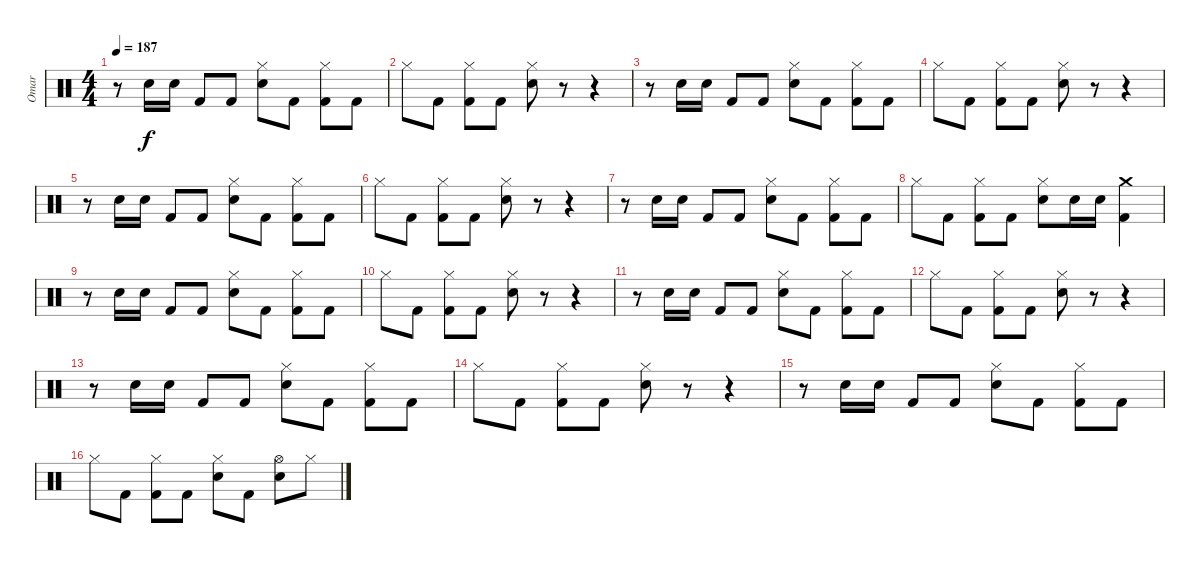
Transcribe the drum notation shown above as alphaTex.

\track ("Omar" "Omar") {instrument percussion}
\staff {score}
\articulation defaults
\ts (4 4)
\tempo 187
\clef neutral
\ks c
r.8{dy f} "Snare (hit) 2".16 "Snare (hit) 2".16 "Kick (hit) 2".8 "Kick (hit) 2".8 ("Hi-Hat (closed)" "Snare (hit) 2").8 "Kick (hit) 2".8 ("Hi-Hat (closed)" "Kick (hit) 2").8 "Kick (hit) 2".8 |
"Hi-Hat (closed)".8 "Kick (hit) 2".8 ("Hi-Hat (closed)" "Kick (hit) 2").8 "Kick (hit) 2".8 ("Hi-Hat (closed)" "Snare (hit) 2").8 r.8 r.4 |
r.8 "Snare (hit) 2".16 "Snare (hit) 2".16 "Kick (hit) 2".8 "Kick (hit) 2".8 ("Hi-Hat (closed)" "Snare (hit) 2").8 "Kick (hit) 2".8 ("Hi-Hat (closed)" "Kick (hit) 2").8 "Kick (hit) 2".8 |
"Hi-Hat (closed)".8 "Kick (hit) 2".8 ("Hi-Hat (closed)" "Kick (hit) 2").8 "Kick (hit) 2".8 ("Hi-Hat (closed)" "Snare (hit) 2").8 r.8 r.4 |
r.8 "Snare (hit) 2".16 "Snare (hit) 2".16 "Kick (hit) 2".8 "Kick (hit) 2".8 ("Hi-Hat (closed)" "Snare (hit) 2").8 "Kick (hit) 2".8 ("Hi-Hat (closed)" "Kick (hit) 2").8 "Kick (hit) 2".8 |
"Hi-Hat (closed)".8 "Kick (hit) 2".8 ("Hi-Hat (closed)" "Kick (hit) 2").8 "Kick (hit) 2".8 ("Hi-Hat (closed)" "Snare (hit) 2").8 r.8 r.4 |
r.8 "Snare (hit) 2".16 "Snare (hit) 2".16 "Kick (hit) 2".8 "Kick (hit) 2".8 ("Hi-Hat (closed)" "Snare (hit) 2").8 "Kick (hit) 2".8 ("Hi-Hat (closed)" "Kick (hit) 2").8 "Kick (hit) 2".8 |
"Hi-Hat (closed)".8 "Kick (hit) 2".8 ("Hi-Hat (closed)" "Kick (hit) 2").8 "Kick (hit) 2".8 ("Hi-Hat (closed)" "Snare (hit) 2").8 "Snare (hit) 2".16 "Snare (hit) 2".16 ("Crash medium (hit)" "Kick (hit) 2").4 |
r.8 "Snare (hit) 2".16 "Snare (hit) 2".16 "Kick (hit) 2".8 "Kick (hit) 2".8 ("Hi-Hat (closed)" "Snare (hit) 2").8 "Kick (hit) 2".8 ("Hi-Hat (closed)" "Kick (hit) 2").8 "Kick (hit) 2".8 |
"Hi-Hat (closed)".8 "Kick (hit) 2".8 ("Hi-Hat (closed)" "Kick (hit) 2").8 "Kick (hit) 2".8 ("Hi-Hat (closed)" "Snare (hit) 2").8 r.8 r.4 |
r.8 "Snare (hit) 2".16 "Snare (hit) 2".16 "Kick (hit) 2".8 "Kick (hit) 2".8 ("Hi-Hat (closed)" "Snare (hit) 2").8 "Kick (hit) 2".8 ("Hi-Hat (closed)" "Kick (hit) 2").8 "Kick (hit) 2".8 |
"Hi-Hat (closed)".8 "Kick (hit) 2".8 ("Hi-Hat (closed)" "Kick (hit) 2").8 "Kick (hit) 2".8 ("Hi-Hat (closed)" "Snare (hit) 2").8 r.8 r.4 |
r.8 "Snare (hit) 2".16 "Snare (hit) 2".16 "Kick (hit) 2".8 "Kick (hit) 2".8 ("Hi-Hat (closed)" "Snare (hit) 2").8 "Kick (hit) 2".8 ("Hi-Hat (closed)" "Kick (hit) 2").8 "Kick (hit) 2".8 |
"Hi-Hat (closed)".8 "Kick (hit) 2".8 ("Hi-Hat (closed)" "Kick (hit) 2").8 "Kick (hit) 2".8 ("Hi-Hat (closed)" "Snare (hit) 2").8 r.8 r.4 |
r.8 "Snare (hit) 2".16 "Snare (hit) 2".16 "Kick (hit) 2".8 "Kick (hit) 2".8 ("Hi-Hat (closed)" "Snare (hit) 2").8 "Kick (hit) 2".8 ("Hi-Hat (closed)" "Kick (hit) 2").8 "Kick (hit) 2".8 |
"Hi-Hat (closed)".8 "Kick (hit) 2".8 ("Hi-Hat (closed)" "Kick (hit) 2").8 "Kick (hit) 2".8 ("Hi-Hat (closed)" "Snare (hit) 2").8 "Kick (hit) 2".8 ("Hi-Hat (open)" "Snare (hit) 2").8 "Hi-Hat (closed)".8
